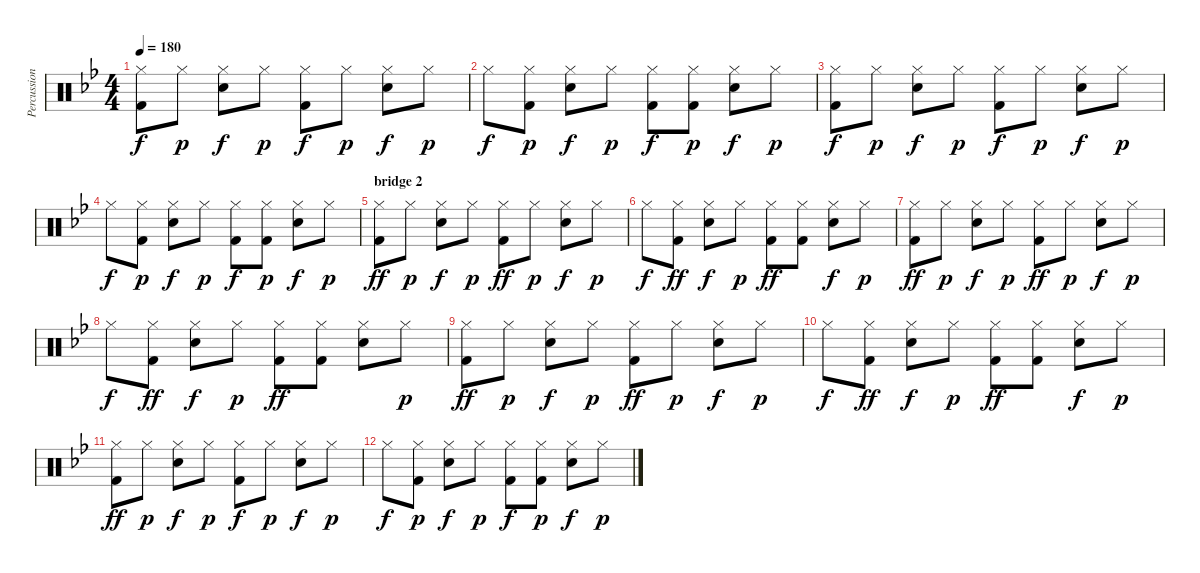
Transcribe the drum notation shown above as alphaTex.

\track ("Percussion" "Percussion") {instrument percussion}
\staff {score}
\articulation defaults
\ts (4 4)
\tempo 180
\clef neutral
\ks bb
("Hi-Hat (closed)" "Kick (hit) 2").8{dy f} "Hi-Hat (closed)".8{dy p} ("Hi-Hat (closed)" "Snare (hit) 2").8{dy f} "Hi-Hat (closed)".8{dy p} ("Hi-Hat (closed)" "Kick (hit) 2").8{dy f} "Hi-Hat (closed)".8{dy p} ("Hi-Hat (closed)" "Snare (hit) 2").8{dy f} "Hi-Hat (closed)".8{dy p} |
"Hi-Hat (closed)".8{dy f} ("Hi-Hat (closed)" "Kick (hit) 2").8{dy p} ("Hi-Hat (closed)" "Snare (hit) 2").8{dy f} "Hi-Hat (closed)".8{dy p} ("Hi-Hat (closed)" "Kick (hit) 2").8{dy f} ("Hi-Hat (closed)" "Kick (hit) 2").8{dy p} ("Hi-Hat (closed)" "Snare (hit) 2").8{dy f} "Hi-Hat (closed)".8{dy p} |
("Hi-Hat (closed)" "Kick (hit) 2").8{dy f} "Hi-Hat (closed)".8{dy p} ("Hi-Hat (closed)" "Snare (hit) 2").8{dy f} "Hi-Hat (closed)".8{dy p} ("Hi-Hat (closed)" "Kick (hit) 2").8{dy f} "Hi-Hat (closed)".8{dy p} ("Hi-Hat (closed)" "Snare (hit) 2").8{dy f} "Hi-Hat (closed)".8{dy p} |
"Hi-Hat (closed)".8{dy f} ("Hi-Hat (closed)" "Kick (hit) 2").8{dy p} ("Hi-Hat (closed)" "Snare (hit) 2").8{dy f} "Hi-Hat (closed)".8{dy p} ("Hi-Hat (closed)" "Kick (hit) 2").8{dy f} ("Hi-Hat (closed)" "Kick (hit) 2").8{dy p} ("Hi-Hat (closed)" "Snare (hit) 2").8{dy f} "Hi-Hat (closed)".8{dy p} |
\section ("" "bridge 2")
("Hi-Hat (closed)" "Kick (hit) 2").8{dy ff} "Hi-Hat (closed)".8{dy p} ("Hi-Hat (closed)" "Snare (hit) 2").8{dy f} "Hi-Hat (closed)".8{dy p} ("Hi-Hat (closed)" "Kick (hit) 2").8{dy ff} "Hi-Hat (closed)".8{dy p} ("Hi-Hat (closed)" "Snare (hit) 2").8{dy f} "Hi-Hat (closed)".8{dy p} |
"Hi-Hat (closed)".8{dy f} ("Hi-Hat (closed)" "Kick (hit) 2").8{dy ff} ("Hi-Hat (closed)" "Snare (hit) 2").8{dy f} "Hi-Hat (closed)".8{dy p} ("Hi-Hat (closed)" "Kick (hit) 2").8{dy ff} ("Hi-Hat (closed)" "Kick (hit) 2").8 ("Hi-Hat (closed)" "Snare (hit) 2").8{dy f} "Hi-Hat (closed)".8{dy p} |
("Hi-Hat (closed)" "Kick (hit) 2").8{dy ff} "Hi-Hat (closed)".8{dy p} ("Hi-Hat (closed)" "Snare (hit) 2").8{dy f} "Hi-Hat (closed)".8{dy p} ("Hi-Hat (closed)" "Kick (hit) 2").8{dy ff} "Hi-Hat (closed)".8{dy p} ("Hi-Hat (closed)" "Snare (hit) 2").8{dy f} "Hi-Hat (closed)".8{dy p} |
"Hi-Hat (closed)".8{dy f} ("Hi-Hat (closed)" "Kick (hit) 2").8{dy ff} ("Hi-Hat (closed)" "Snare (hit) 2").8{dy f} "Hi-Hat (closed)".8{dy p} ("Hi-Hat (closed)" "Kick (hit) 2").8{dy ff} ("Hi-Hat (closed)" "Kick (hit) 2").8 ("Hi-Hat (closed)" "Snare (hit) 2").8 "Hi-Hat (closed)".8{dy p} |
("Hi-Hat (closed)" "Kick (hit) 2").8{dy ff} "Hi-Hat (closed)".8{dy p} ("Hi-Hat (closed)" "Snare (hit) 2").8{dy f} "Hi-Hat (closed)".8{dy p} ("Hi-Hat (closed)" "Kick (hit) 2").8{dy ff} "Hi-Hat (closed)".8{dy p} ("Hi-Hat (closed)" "Snare (hit) 2").8{dy f} "Hi-Hat (closed)".8{dy p} |
"Hi-Hat (closed)".8{dy f} ("Hi-Hat (closed)" "Kick (hit) 2").8{dy ff} ("Hi-Hat (closed)" "Snare (hit) 2").8{dy f} "Hi-Hat (closed)".8{dy p} ("Hi-Hat (closed)" "Kick (hit) 2").8{dy ff} ("Hi-Hat (closed)" "Kick (hit) 2").8 ("Hi-Hat (closed)" "Snare (hit) 2").8{dy f} "Hi-Hat (closed)".8{dy p} |
("Hi-Hat (closed)" "Kick (hit) 2").8{dy ff} "Hi-Hat (closed)".8{dy p} ("Hi-Hat (closed)" "Snare (hit) 2").8{dy f} "Hi-Hat (closed)".8{dy p} ("Hi-Hat (closed)" "Kick (hit) 2").8{dy f} "Hi-Hat (closed)".8{dy p} ("Hi-Hat (closed)" "Snare (hit) 2").8{dy f} "Hi-Hat (closed)".8{dy p} |
"Hi-Hat (closed)".8{dy f} ("Hi-Hat (closed)" "Kick (hit) 2").8{dy p} ("Hi-Hat (closed)" "Snare (hit) 2").8{dy f} "Hi-Hat (closed)".8{dy p} ("Hi-Hat (closed)" "Kick (hit) 2").8{dy f} ("Hi-Hat (closed)" "Kick (hit) 2").8{dy p} ("Hi-Hat (closed)" "Snare (hit) 2").8{dy f} "Hi-Hat (closed)".8{dy p}
